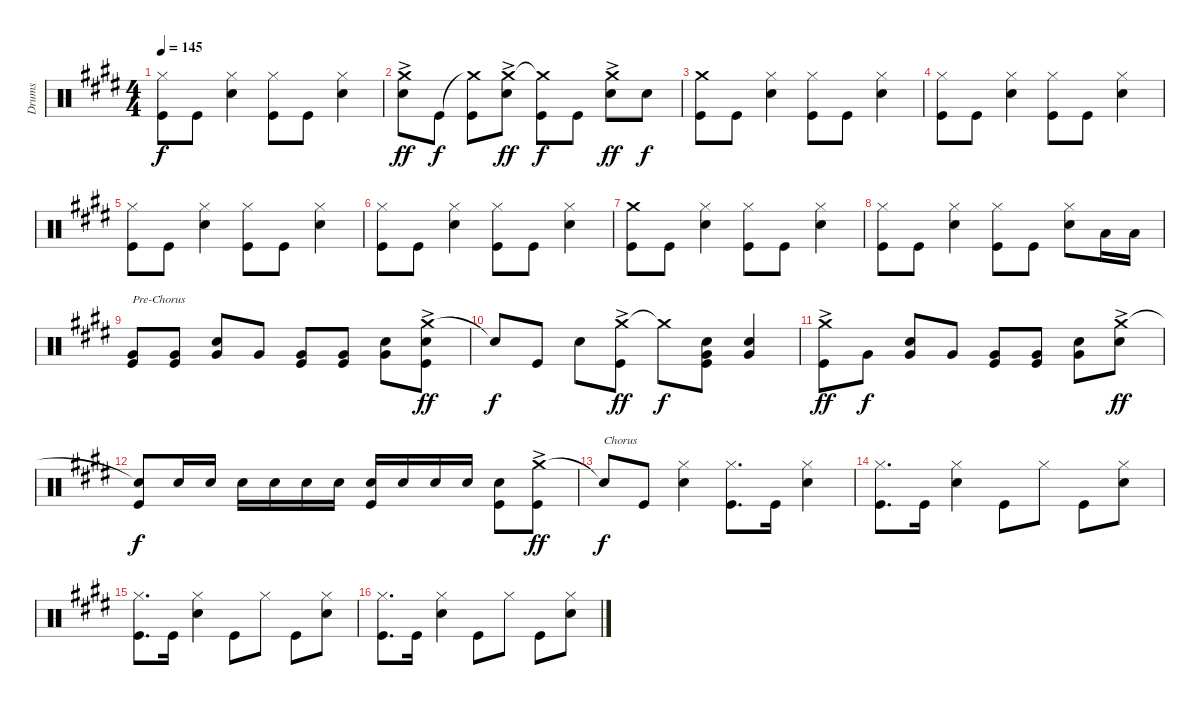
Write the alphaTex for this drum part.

\track ("Drums" "Drums") {instrument percussion}
\staff {score}
\articulation defaults
\ts (4 4)
\tempo 145
\clef neutral
\ks e
("Hi-Hat (closed)" "Kick (hit)").8{dy f} "Kick (hit)".8 ("Hi-Hat (closed)" "Snare (hit) 2").4 ("Hi-Hat (closed)" "Kick (hit)").8 "Kick (hit)".8 ("Hi-Hat (closed)" "Snare (hit) 2").4 |
("Crash medium (hit)"{ac} "Snare (hit) 2").8{dy ff} "Kick (hit)".8{dy f} ("Crash medium (hit)"{t} "Kick (hit)").8 ("Crash medium (hit)"{ac} "Snare (hit) 2").8{dy ff} ("Crash medium (hit)"{t} "Kick (hit)").8{dy f} "Kick (hit)".8 ("Crash medium (hit)"{ac} "Snare (hit) 2").8{dy ff} "Snare (hit) 2".8{dy f} |
("Crash medium (hit)" "Kick (hit)").8 "Kick (hit)".8 ("Hi-Hat (closed)" "Snare (hit) 2").4 ("Hi-Hat (closed)" "Kick (hit)").8 "Kick (hit)".8 ("Hi-Hat (closed)" "Snare (hit) 2").4 |
("Hi-Hat (closed)" "Kick (hit)").8 "Kick (hit)".8 ("Hi-Hat (closed)" "Snare (hit) 2").4 ("Hi-Hat (closed)" "Kick (hit)").8 "Kick (hit)".8 ("Hi-Hat (closed)" "Snare (hit) 2").4 |
("Hi-Hat (closed)" "Kick (hit)").8 "Kick (hit)".8 ("Hi-Hat (closed)" "Snare (hit) 2").4 ("Hi-Hat (closed)" "Kick (hit)").8 "Kick (hit)".8 ("Hi-Hat (closed)" "Snare (hit) 2").4 |
("Hi-Hat (closed)" "Kick (hit)").8 "Kick (hit)".8 ("Hi-Hat (closed)" "Snare (hit) 2").4 ("Hi-Hat (closed)" "Kick (hit)").8 "Kick (hit)".8 ("Hi-Hat (closed)" "Snare (hit) 2").4 |
("Crash medium (hit)" "Kick (hit)").8 "Kick (hit)".8 ("Hi-Hat (closed)" "Snare (hit) 2").4 ("Hi-Hat (closed)" "Kick (hit)").8 "Kick (hit)".8 ("Hi-Hat (closed)" "Snare (hit) 2").4 |
("Hi-Hat (closed)" "Kick (hit)").8 "Kick (hit)".8 ("Hi-Hat (closed)" "Snare (hit) 2").4 ("Hi-Hat (closed)" "Kick (hit)").8 "Kick (hit)".8 ("Hi-Hat (closed)" "Snare (hit) 2").8 "Low Tom (hit)".16 "Low Tom (hit)".16 |
("Very Low Tom (hit)" "Kick (hit)").8{txt "Pre-Chorus"} ("Very Low Tom (hit)" "Kick (hit)").8 ("Snare (hit) 2" "Very Low Tom (hit)").8 "Very Low Tom (hit)".8 ("Very Low Tom (hit)" "Kick (hit)").8 ("Very Low Tom (hit)" "Kick (hit)").8 ("Snare (hit) 2" "Very Low Tom (hit)").8 ("Crash medium (hit)"{ac} "Snare (hit) 2" "Kick (hit)").8{dy ff} |
"Snare (hit)"{t}.8{dy f} "Kick (hit)".8 "Snare (hit) 2".8 ("Crash medium (hit)"{ac} "Kick (hit)").8{dy ff} "Crash medium (hit)"{t}.8{dy f} ("Snare (hit) 2" "Very Low Tom (hit)" "Kick (hit)").8 ("Snare (hit) 2" "Very Low Tom (hit)").4 |
("Crash medium (hit)"{ac} "Kick (hit)").8{dy ff} "Very Low Tom (hit)".8{dy f} ("Snare (hit) 2" "Very Low Tom (hit)").8 "Very Low Tom (hit)".8 ("Very Low Tom (hit)" "Kick (hit)").8 ("Very Low Tom (hit)" "Kick (hit)").8 ("Snare (hit) 2" "Very Low Tom (hit)").8 ("Crash medium (hit)"{ac} "Snare (hit) 2").8{dy ff} |
("Snare (hit)"{t} "Kick (hit)").8{dy f} "Snare (hit) 2".16 "Snare (hit) 2".16 "Snare (hit) 2".16 "Snare (hit) 2".16 "Snare (hit) 2".16 "Snare (hit) 2".16 ("Snare (hit) 2" "Kick (hit)").16 "Snare (hit) 2".16 "Snare (hit) 2".16 "Snare (hit) 2".16 ("Snare (hit) 2" "Kick (hit)").8 ("Crash medium (hit)"{ac} "Kick (hit)").8{dy ff} |
"Snare (hit)"{t}.8{txt "Chorus" dy f} "Kick (hit)".8 ("Hi-Hat (closed)" "Snare (hit) 2").4 ("Hi-Hat (closed)" "Kick (hit)").8{d} "Kick (hit)".16 ("Hi-Hat (closed)" "Snare (hit) 2").4 |
("Hi-Hat (closed)" "Kick (hit)").8{d} "Kick (hit)".16 ("Hi-Hat (closed)" "Snare (hit) 2").4 "Kick (hit)".8 "Hi-Hat (closed)".8 "Kick (hit)".8 ("Hi-Hat (closed)" "Snare (hit) 2").8 |
("Hi-Hat (closed)" "Kick (hit)").8{d} "Kick (hit)".16 ("Hi-Hat (closed)" "Snare (hit) 2").4 "Kick (hit)".8 "Hi-Hat (closed)".8 "Kick (hit)".8 ("Hi-Hat (closed)" "Snare (hit) 2").8 |
("Hi-Hat (closed)" "Kick (hit)").8{d} "Kick (hit)".16 ("Hi-Hat (closed)" "Snare (hit) 2").4 "Kick (hit)".8 "Hi-Hat (closed)".8 "Kick (hit)".8 ("Hi-Hat (closed)" "Snare (hit) 2").8
